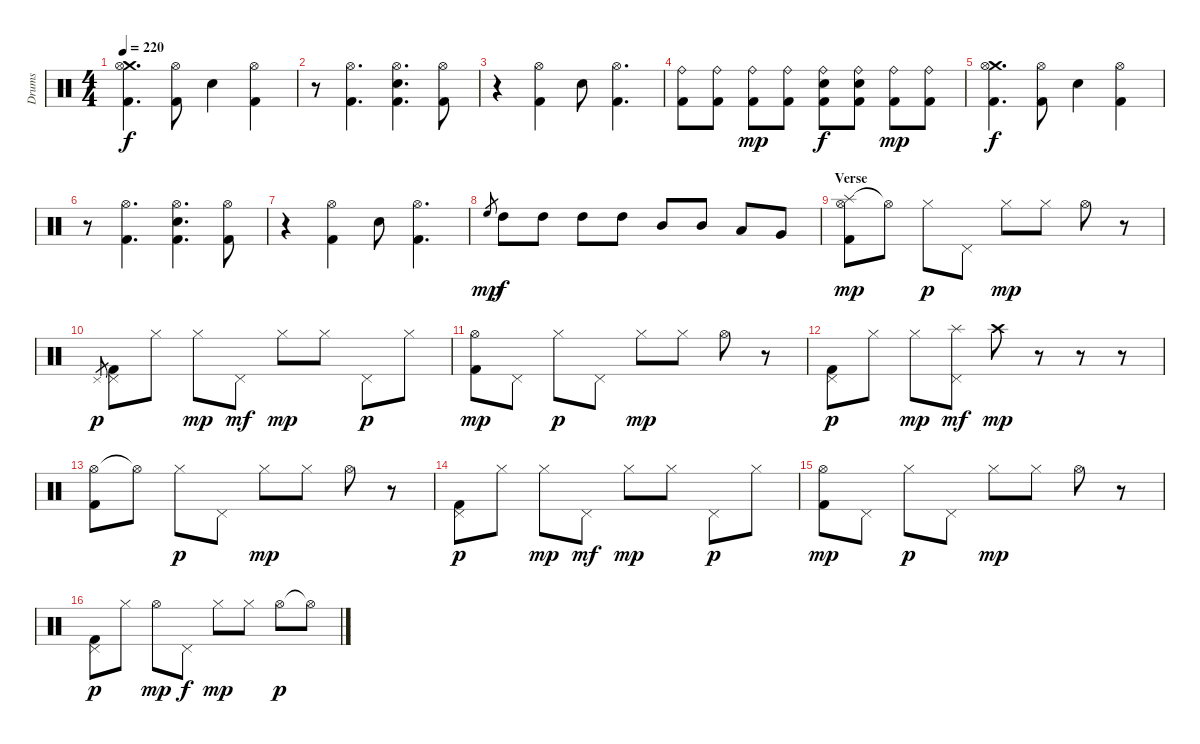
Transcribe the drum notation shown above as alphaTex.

\bracketExtendMode groupsimilarinstruments
\otherSystemsTrackNameOrientation horizontal
\track ("Drumkit" "Drums") {instrument percussion}
\staff {score}
\articulation defaults
\ts (4 4)
\tempo 220
\clef neutral
\ks c
("Crash medium (hit)" "Hi-Hat (open)" "Kick (hit) 2").4{d dy f beam Down} ("Hi-Hat (open)" "Kick (hit) 2").8{beam Down} "Snare (hit) 2".4{beam Down} ("Hi-Hat (open)" "Kick (hit) 2").4{beam Down} |
r.8{beam Down} ("Hi-Hat (open)" "Kick (hit) 2").4{d beam Down} ("Hi-Hat (open)" "Snare (hit) 2" "Kick (hit) 2").4{d beam Down} ("Hi-Hat (open)" "Kick (hit) 2").8{beam Down} |
r.4{beam Down} ("Hi-Hat (open)" "Kick (hit) 2").4{beam Down} "Snare (hit) 2".8{beam Down} ("Hi-Hat (open)" "Kick (hit) 2").4{d beam Down} |
("Ride (bell)" "Kick (hit) 2").8{beam Down} ("Ride (bell)" "Kick (hit) 2").8{beam Down} ("Ride (bell)" "Kick (hit) 2").8{dy mp beam Down} ("Ride (bell)" "Kick (hit) 2").8{beam Down} ("Ride (bell)" "Snare (hit) 2" "Kick (hit) 2").8{dy f beam Down} ("Ride (bell)" "Snare (hit) 2" "Kick (hit) 2").8{beam Down} ("Ride (bell)" "Kick (hit) 2").8{dy mp beam Down} ("Ride (bell)" "Kick (hit) 2").8{beam Down} |
("Crash medium (hit)" "Hi-Hat (open)" "Kick (hit) 2").4{d dy f beam Down} ("Hi-Hat (open)" "Kick (hit) 2").8{beam Down} "Snare (hit) 2".4{beam Down} ("Hi-Hat (open)" "Kick (hit) 2").4{beam Down} |
r.8{beam Down} ("Hi-Hat (open)" "Kick (hit) 2").4{d beam Down} ("Hi-Hat (open)" "Snare (hit) 2" "Kick (hit) 2").4{d beam Down} ("Hi-Hat (open)" "Kick (hit) 2").8{beam Down} |
r.4{beam Down} ("Hi-Hat (open)" "Kick (hit) 2").4{beam Down} "Snare (hit) 2".8{beam Down} ("Hi-Hat (open)" "Kick (hit) 2").4{d beam Down} |
"High Floor Tom (hit)".8{gr dy mp beam Up} "High Tom (hit)".8{dy f beam Down} "High Tom (hit)".8{beam Down} "High Tom (hit)".8{beam Down} "High Tom (hit)".8{beam Down} "Mid Tom (hit)".8{beam Up} "Mid Tom (hit)".8{beam Up} "Low Tom (hit)".8{beam Up} "Very Low Tom (hit)".8{beam Up} |
\section ("" "Verse")
("Splash (hit)" "Hi-Hat (open)" "Kick (hit) 2").8{dy mp beam Down} "Hi-Hat (open)"{t}.8{beam Down} "Hi-Hat (closed)".8{dy p beam Down} "Pedal Hi-Hat (hit)".8{beam Down} "Hi-Hat (closed)".8{dy mp beam Down} "Hi-Hat (closed)".8{beam Down} "Hi-Hat (open)".8{beam Down} r.8{beam Down} |
"Pedal Hi-Hat (hit)".8{gr dy p beam Up} ("Pedal Hi-Hat (hit)" "Kick (hit) 2").8{beam Down} "Hi-Hat (closed)".8{beam Down} "Hi-Hat (closed)".8{dy mp beam Down} "Pedal Hi-Hat (hit)".8{dy mf beam Down} "Hi-Hat (closed)".8{dy mp beam Down} "Hi-Hat (closed)".8{beam Down} "Pedal Hi-Hat (hit)".8{dy p beam Down} "Hi-Hat (closed)".8{beam Down} |
("Hi-Hat (open)" "Kick (hit) 2").8{dy mp beam Down} "Pedal Hi-Hat (hit)".8{beam Down} "Hi-Hat (closed)".8{dy p beam Down} "Pedal Hi-Hat (hit)".8{beam Down} "Hi-Hat (closed)".8{dy mp beam Down} "Hi-Hat (closed)".8{beam Down} "Hi-Hat (open)".8{beam Down} r.8{beam Down} |
("Pedal Hi-Hat (hit)" "Kick (hit) 2").8{dy p beam Down} "Hi-Hat (closed)".8{beam Down} "Hi-Hat (closed)".8{dy mp beam Down} ("Splash (hit)" "Pedal Hi-Hat (hit)").8{dy mf beam Down} "Crash high (hit)".8{dy mp beam Down} r.8{beam Down} r.8{beam Down} r.8{beam Down} |
("Hi-Hat (open)" "Kick (hit) 2").8{beam Down} "Hi-Hat (open)"{t}.8{beam Down} "Hi-Hat (closed)".8{dy p beam Down} "Pedal Hi-Hat (hit)".8{beam Down} "Hi-Hat (closed)".8{dy mp beam Down} "Hi-Hat (closed)".8{beam Down} "Hi-Hat (open)".8{beam Down} r.8{beam Down} |
("Pedal Hi-Hat (hit)" "Kick (hit) 2").8{dy p beam Down} "Hi-Hat (closed)".8{beam Down} "Hi-Hat (closed)".8{dy mp beam Down} "Pedal Hi-Hat (hit)".8{dy mf beam Down} "Hi-Hat (closed)".8{dy mp beam Down} "Hi-Hat (closed)".8{beam Down} "Pedal Hi-Hat (hit)".8{dy p beam Down} "Hi-Hat (closed)".8{beam Down} |
("Hi-Hat (open)" "Kick (hit) 2").8{dy mp beam Down} "Pedal Hi-Hat (hit)".8{beam Down} "Hi-Hat (closed)".8{dy p beam Down} "Pedal Hi-Hat (hit)".8{beam Down} "Hi-Hat (closed)".8{dy mp beam Down} "Hi-Hat (closed)".8{beam Down} "Hi-Hat (open)".8{beam Down} r.8{beam Down} |
("Pedal Hi-Hat (hit)" "Kick (hit) 2").8{dy p beam Down} "Hi-Hat (closed)".8{beam Down} "Hi-Hat (open)".8{dy mp beam Down} "Pedal Hi-Hat (hit)".8{dy f beam Down} "Hi-Hat (closed)".8{dy mp beam Down} "Hi-Hat (closed)".8{beam Down} "Hi-Hat (open)".8{dy p beam Down} "Hi-Hat (open)"{t}.8{beam Down}
